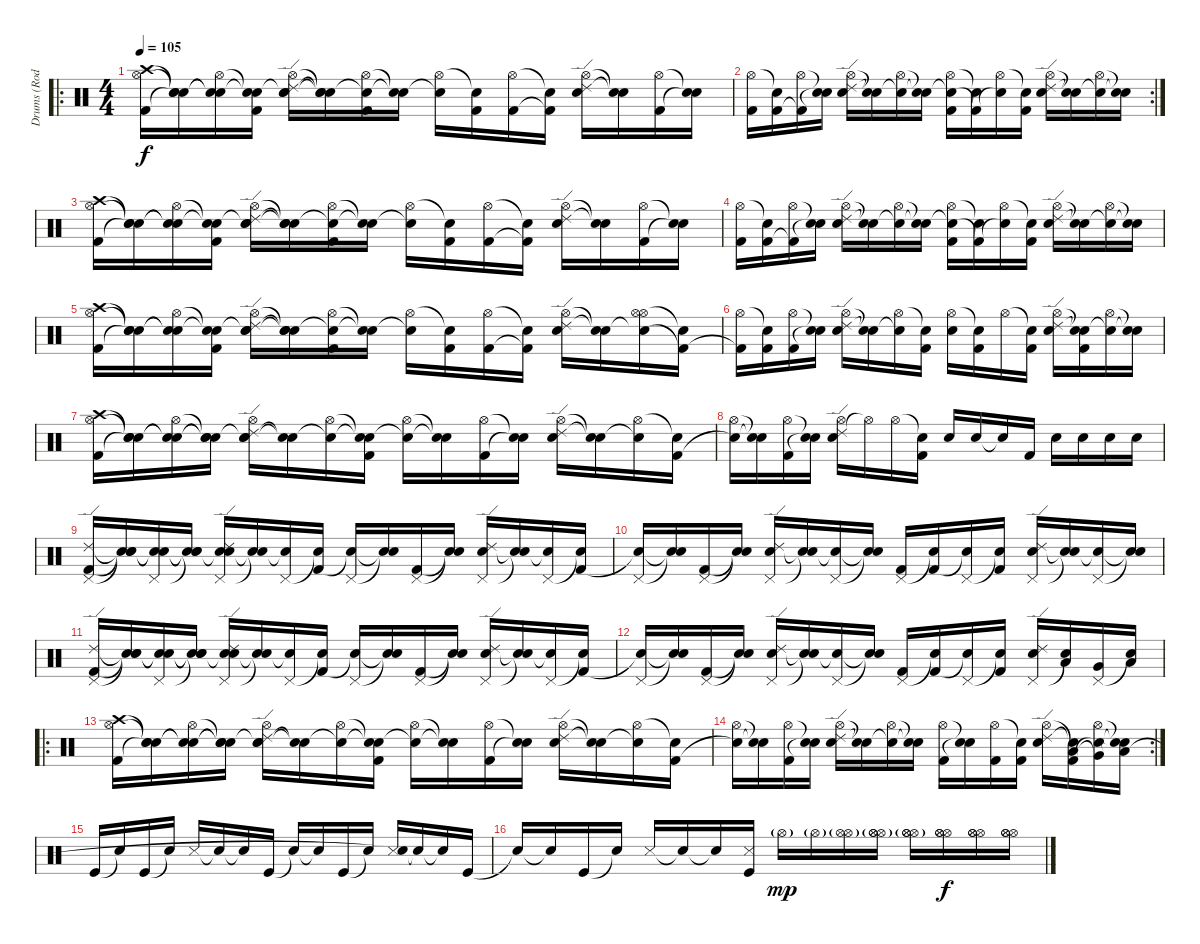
\track ("Drums (Rod Bourdon)" "Drums (Rod") {instrument percussion}
\staff {score}
\articulation defaults
\ro
\ts (4 4)
\tempo 105
\clef neutral
\ks c
("Crash high (hit)" "Hi-Hat (open)" "Kick (hit) 2").16{dy f} ("Snare (hit)"{t} "Snare (hit)"{t} "Snare (hit)"{t}).16 ("Snare (hit)"{t} "Hi-Hat (open)" "Snare (hit)"{t}).16 ("Snare (hit)"{t} "Snare (hit)"{t} "Kick (hit) 2").16 ("Snare (hit)"{t} "Hi-Hat (open)" "Ride (edge) 2" "Electric Snare (hit)").16 ("Snare (hit)"{t} "Snare (hit)"{t} "Snare (hit)"{t}).16 ("Snare (hit)"{t} "Hi-Hat (open)" "Kick (hit) 2").16 ("Snare (hit)"{t} "Snare (hit)"{t}).16 ("Hi-Hat (open)" "Snare (hit)"{t}).16 ("Snare (hit)"{t} "Kick (hit) 2").16 ("Hi-Hat (open)" "Kick (hit) 2").16 ("Snare (hit)"{t} "Kick (hit) 2"{t}).16 ("Hi-Hat (open)" "Ride (edge) 2" "Electric Snare (hit)").16 ("Snare (hit)"{t} "Snare (hit)"{t}).16 ("Hi-Hat (open)" "Kick (hit) 2").16 ("Snare (hit)"{t} "Snare (hit)"{t}).16 |
\rc 2
("Hi-Hat (open)" "Kick (hit) 2").16 ("Snare (hit)"{t} "Kick (hit) 2").16 ("Hi-Hat (open)" "Kick (hit) 2"{t}).16 ("Snare (hit)"{t} "Snare (hit)"{t}).16 ("Hi-Hat (open)" "Ride (edge) 2" "Electric Snare (hit)").16 ("Snare (hit)"{t} "Snare (hit)"{t}).16 ("Hi-Hat (open)" "Snare (hit)"{t}).16 ("Snare (hit)"{t} "Snare (hit)"{t}).16 ("Hi-Hat (open)" "Snare (hit)"{t} "Kick (hit) 2").16 ("Snare (hit)"{t} "Kick (hit) 2"{t}).16 ("Hi-Hat (open)" "Snare (hit)"{t}).16 ("Snare (hit)"{t} "Kick (hit) 2").16 ("Hi-Hat (open)" "Ride (edge) 2" "Electric Snare (hit)").16 ("Snare (hit)"{t} "Snare (hit)"{t}).16 ("Hi-Hat (open)" "Snare (hit)"{t}).16 ("Snare (hit)"{t} "Snare (hit)"{t}).16 |
("Crash high (hit)" "Hi-Hat (open)" "Kick (hit) 2").16 ("Snare (hit)"{t} "Snare (hit)"{t} "Snare (hit)"{t}).16 ("Snare (hit)"{t} "Hi-Hat (open)" "Snare (hit)"{t}).16 ("Snare (hit)"{t} "Snare (hit)"{t} "Kick (hit) 2").16 ("Snare (hit)"{t} "Hi-Hat (open)" "Ride (edge) 2" "Electric Snare (hit)").16 ("Snare (hit)"{t} "Snare (hit)"{t} "Snare (hit)"{t}).16 ("Snare (hit)"{t} "Hi-Hat (open)" "Kick (hit) 2").16 ("Snare (hit)"{t} "Snare (hit)"{t}).16 ("Hi-Hat (open)" "Snare (hit)"{t}).16 ("Snare (hit)"{t} "Kick (hit) 2").16 ("Hi-Hat (open)" "Kick (hit) 2").16 ("Snare (hit)"{t} "Kick (hit) 2"{t}).16 ("Hi-Hat (open)" "Ride (edge) 2" "Electric Snare (hit)").16 ("Snare (hit)"{t} "Snare (hit)"{t}).16 ("Hi-Hat (open)" "Kick (hit) 2").16 ("Snare (hit)"{t} "Snare (hit)"{t}).16 |
("Hi-Hat (open)" "Kick (hit) 2").16 ("Snare (hit)"{t} "Kick (hit) 2").16 ("Hi-Hat (open)" "Kick (hit) 2"{t}).16 ("Snare (hit)"{t} "Snare (hit)"{t}).16 ("Hi-Hat (open)" "Ride (edge) 2" "Electric Snare (hit)").16 ("Snare (hit)"{t} "Snare (hit)"{t}).16 ("Hi-Hat (open)" "Snare (hit)"{t}).16 ("Snare (hit)"{t} "Snare (hit)"{t}).16 ("Hi-Hat (open)" "Snare (hit)"{t} "Kick (hit) 2").16 ("Snare (hit)"{t} "Kick (hit) 2"{t}).16 ("Hi-Hat (open)" "Snare (hit)"{t}).16 ("Snare (hit)"{t} "Kick (hit) 2").16 ("Hi-Hat (open)" "Ride (edge) 2" "Electric Snare (hit)").16 ("Snare (hit)"{t} "Snare (hit)"{t}).16 ("Hi-Hat (open)" "Snare (hit)"{t}).16 ("Snare (hit)"{t} "Snare (hit)"{t}).16 |
("Crash high (hit)" "Hi-Hat (open)" "Kick (hit) 2").16 ("Snare (hit)"{t} "Snare (hit)"{t} "Snare (hit)"{t}).16 ("Snare (hit)"{t} "Hi-Hat (open)" "Snare (hit)"{t}).16 ("Snare (hit)"{t} "Snare (hit)"{t} "Kick (hit) 2").16 ("Snare (hit)"{t} "Hi-Hat (open)" "Ride (edge) 2" "Electric Snare (hit)").16 ("Snare (hit)"{t} "Snare (hit)"{t} "Snare (hit)"{t}).16 ("Snare (hit)"{t} "Hi-Hat (open)" "Kick (hit) 2").16 ("Snare (hit)"{t} "Snare (hit)"{t}).16 ("Hi-Hat (open)" "Snare (hit)"{t}).16 ("Snare (hit)"{t} "Kick (hit) 2").16 ("Hi-Hat (open)" "Kick (hit) 2").16 ("Snare (hit)"{t} "Kick (hit) 2"{t}).16 ("Hi-Hat (open)" "Ride (edge) 2" "Electric Snare (hit)").16 ("Snare (hit)"{t} "Snare (hit)"{t}).16 ("Hi-Hat (open)" "Snare (hit)"{t} "Hi-Hat (open)").16 ("Snare (hit)"{t} "Kick (hit) 2"{t}).16 |
("Hi-Hat (open)" "Kick (hit) 2"{t}).16 ("Snare (hit)"{t} "Kick (hit) 2").16 ("Hi-Hat (open)" "Kick (hit) 2").16 ("Snare (hit)"{t} "Snare (hit)"{t}).16 ("Hi-Hat (open)" "Ride (edge) 2" "Electric Snare (hit)").16 ("Snare (hit)"{t} "Snare (hit)"{t}).16 ("Hi-Hat (open)" "Snare (hit)"{t}).16 ("Snare (hit)"{t} "Kick (hit) 2").16 ("Hi-Hat (open)" "Electric Snare (hit)").16 ("Snare (hit)"{t} "Kick (hit) 2").16 "Hi-Hat (open)".16 ("Snare (hit)"{t} "Kick (hit) 2").16 ("Hi-Hat (open)" "Ride (edge) 2" "Electric Snare (hit)").16 ("Snare (hit)"{t} "Snare (hit)"{t} "Kick (hit) 2").16 ("Hi-Hat (open)" "Snare (hit)"{t}).16 ("Snare (hit)"{t} "Snare (hit)"{t}).16 |
("Crash high (hit)" "Hi-Hat (open)" "Kick (hit) 2").16 ("Snare (hit)"{t} "Snare (hit)"{t} "Snare (hit)"{t}).16 ("Snare (hit)"{t} "Hi-Hat (open)" "Snare (hit)"{t}).16 ("Snare (hit)"{t} "Snare (hit)"{t} "Snare (hit)"{t}).16 ("Snare (hit)"{t} "Ride (edge) 2" "Hi-Hat (open)" "Electric Snare (hit)").16 ("Snare (hit)"{t} "Snare (hit)"{t}).16 ("Hi-Hat (open)" "Snare (hit)"{t}).16 ("Snare (hit)"{t} "Snare (hit)"{t} "Kick (hit) 2").16 ("Hi-Hat (open)" "Snare (hit)"{t}).16 ("Snare (hit)"{t} "Snare (hit)"{t}).16 ("Hi-Hat (open)" "Kick (hit) 2").16 ("Snare (hit)"{t} "Snare (hit)"{t}).16 ("Ride (edge) 2" "Hi-Hat (open)" "Electric Snare (hit)").16 ("Snare (hit)"{t} "Snare (hit)"{t}).16 ("Hi-Hat (open)" "Snare (hit)"{t}).16 ("Snare (hit)"{t} "Kick (hit) 2").16 |
("Hi-Hat (open)" "Snare (hit)"{t}).16 ("Snare (hit)"{t} "Snare (hit)"{t}).16 ("Hi-Hat (open)" "Kick (hit) 2").16 ("Snare (hit)"{t} "Snare (hit)"{t}).16 ("Ride (edge) 2" "Hi-Hat (open)" "Electric Snare (hit)").16 "Hi-Hat (open)"{t}.16 "Hi-Hat (open)".16 ("Snare (hit)"{t} "Kick (hit) 2").16 "Electric Snare (hit)".16 "Electric Snare (hit)".16 "Snare (hit)"{t}.16 "Kick (hit) 2".16 "Electric Snare (hit)".16 "Electric Snare (hit)".16 "Electric Snare (hit)".16 "Electric Snare (hit)".16 |
("Ride (edge) 2" "Pedal Hi-Hat (hit)" "Kick (hit) 2").16 ("Snare (hit)"{t} "Snare (hit)"{t} "Snare (hit)"{t}).16 ("Snare (hit)"{t} "Pedal Hi-Hat (hit)" "Snare (hit)"{t}).16 ("Snare (hit)"{t} "Snare (hit)"{t} "Snare (hit)"{t}).16 ("Snare (hit)"{t} "Pedal Hi-Hat (hit)" "Ride (edge) 2" "Electric Snare (hit)").16 ("Snare (hit)"{t} "Snare (hit)"{t}).16 ("Pedal Hi-Hat (hit)" "Snare (hit)"{t}).16 ("Snare (hit)"{t} "Kick (hit) 2").16 ("Pedal Hi-Hat (hit)" "Snare (hit)"{t}).16 ("Snare (hit)"{t} "Snare (hit)"{t}).16 ("Pedal Hi-Hat (hit)" "Kick (hit) 2").16 ("Snare (hit)"{t} "Snare (hit)"{t}).16 ("Pedal Hi-Hat (hit)" "Ride (edge) 2" "Electric Snare (hit)").16 ("Snare (hit)"{t} "Snare (hit)"{t}).16 ("Pedal Hi-Hat (hit)" "Snare (hit)"{t}).16 ("Snare (hit)"{t} "Kick (hit) 2").16 |
("Pedal Hi-Hat (hit)" "Snare (hit)"{t}).16 ("Snare (hit)"{t} "Snare (hit)"{t}).16 ("Pedal Hi-Hat (hit)" "Kick (hit) 2").16 ("Snare (hit)"{t} "Snare (hit)"{t}).16 ("Pedal Hi-Hat (hit)" "Ride (edge) 2" "Electric Snare (hit)").16 ("Snare (hit)"{t} "Snare (hit)"{t}).16 ("Pedal Hi-Hat (hit)" "Snare (hit)"{t}).16 ("Snare (hit)"{t} "Snare (hit)"{t}).16 ("Pedal Hi-Hat (hit)" "Kick (hit) 2").16 ("Snare (hit)"{t} "Kick (hit) 2").16 ("Pedal Hi-Hat (hit)" "Snare (hit)"{t}).16 ("Snare (hit)"{t} "Kick (hit) 2").16 ("Pedal Hi-Hat (hit)" "Ride (edge) 2" "Electric Snare (hit)").16 ("Snare (hit)"{t} "Snare (hit)"{t}).16 ("Pedal Hi-Hat (hit)" "Snare (hit)"{t}).16 ("Snare (hit)"{t} "Snare (hit)"{t}).16 |
("Ride (edge) 2" "Pedal Hi-Hat (hit)" "Kick (hit) 2").16 ("Snare (hit)"{t} "Snare (hit)"{t} "Snare (hit)"{t}).16 ("Snare (hit)"{t} "Pedal Hi-Hat (hit)" "Snare (hit)"{t}).16 ("Snare (hit)"{t} "Snare (hit)"{t} "Snare (hit)"{t}).16 ("Snare (hit)"{t} "Pedal Hi-Hat (hit)" "Ride (edge) 2" "Electric Snare (hit)").16 ("Snare (hit)"{t} "Snare (hit)"{t}).16 ("Pedal Hi-Hat (hit)" "Snare (hit)"{t}).16 ("Snare (hit)"{t} "Kick (hit) 2").16 ("Pedal Hi-Hat (hit)" "Snare (hit)"{t}).16 ("Snare (hit)"{t} "Snare (hit)"{t}).16 ("Pedal Hi-Hat (hit)" "Kick (hit) 2").16 ("Snare (hit)"{t} "Snare (hit)"{t}).16 ("Pedal Hi-Hat (hit)" "Ride (edge) 2" "Electric Snare (hit)").16 ("Snare (hit)"{t} "Snare (hit)"{t}).16 ("Pedal Hi-Hat (hit)" "Snare (hit)"{t}).16 ("Snare (hit)"{t} "Kick (hit) 2").16 |
("Pedal Hi-Hat (hit)" "Snare (hit)"{t}).16 ("Snare (hit)"{t} "Snare (hit)"{t}).16 ("Pedal Hi-Hat (hit)" "Kick (hit) 2").16 ("Snare (hit)"{t} "Snare (hit)"{t}).16 ("Pedal Hi-Hat (hit)" "Ride (edge) 2" "Electric Snare (hit)").16 ("Snare (hit)"{t} "Snare (hit)"{t}).16 ("Pedal Hi-Hat (hit)" "Snare (hit)"{t}).16 ("Snare (hit)"{t} "Snare (hit)"{t}).16 ("Pedal Hi-Hat (hit)" "Kick (hit) 2").16 ("Snare (hit)"{t} "Kick (hit) 2").16 ("Pedal Hi-Hat (hit)" "Snare (hit)"{t}).16 ("Snare (hit)"{t} "Kick (hit) 2").16 ("Pedal Hi-Hat (hit)" "Ride (edge) 2" "Electric Snare (hit)").16 ("Snare (hit)"{t} "Low Tom (hit)").16 ("Pedal Hi-Hat (hit)" "Very Low Tom (hit)").16 ("Snare (hit)"{t} "Low Floor Tom (hit)").16 |
\ro
("Crash high (hit)" "Hi-Hat (open)" "Kick (hit) 2").16 ("Snare (hit)"{t} "Snare (hit)"{t} "Snare (hit)"{t}).16 ("Snare (hit)"{t} "Hi-Hat (open)" "Snare (hit)"{t}).16 ("Snare (hit)"{t} "Snare (hit)"{t} "Snare (hit)"{t}).16 ("Snare (hit)"{t} "Ride (edge) 2" "Hi-Hat (open)" "Electric Snare (hit)").16 ("Snare (hit)"{t} "Snare (hit)"{t}).16 ("Hi-Hat (open)" "Snare (hit)"{t}).16 ("Snare (hit)"{t} "Snare (hit)"{t} "Kick (hit) 2").16 ("Hi-Hat (open)" "Snare (hit)"{t}).16 ("Snare (hit)"{t} "Snare (hit)"{t}).16 ("Hi-Hat (open)" "Kick (hit) 2").16 ("Snare (hit)"{t} "Snare (hit)"{t}).16 ("Ride (edge) 2" "Hi-Hat (open)" "Electric Snare (hit)").16 ("Snare (hit)"{t} "Snare (hit)"{t}).16 ("Hi-Hat (open)" "Snare (hit)"{t}).16 ("Snare (hit)"{t} "Kick (hit) 2").16 |
\rc 2
("Hi-Hat (open)" "Snare (hit)"{t}).16 ("Snare (hit)"{t} "Snare (hit)"{t}).16 ("Hi-Hat (open)" "Kick (hit) 2").16 ("Snare (hit)"{t} "Snare (hit)"{t}).16 ("Ride (edge) 2" "Hi-Hat (open)" "Electric Snare (hit)").16 ("Snare (hit)"{t} "Snare (hit)"{t}).16 ("Hi-Hat (open)" "Snare (hit)"{t}).16 ("Snare (hit)"{t} "Snare (hit)"{t}).16 ("Hi-Hat (open)" "Kick (hit) 2").16 ("Snare (hit)"{t} "Snare (hit)"{t}).16 ("Hi-Hat (open)" "Kick (hit) 2").16 ("Snare (hit)"{t} "Kick (hit) 2").16 ("Ride (edge) 2" "Hi-Hat (open)" "Electric Snare (hit)").16 ("Snare (hit)"{t} "Low Tom (hit)"{t} "Kick (hit) 2").16 ("Hi-Hat (open)" "Very Low Tom (hit)"{t} "Snare (hit)"{t}).16 ("Snare (hit)"{t} "Low Floor Tom (hit)"{t} "Snare (hit)"{t}).16 |
"Kick (hit)".16 "Snare (hit)"{t}.16 "Kick (hit)".16 "Snare (hit)"{t}.16 "Snare (side stick) 3".16 "Snare (hit)"{t}.16 "Snare (hit)"{t}.16 "Kick (hit)".16 "Snare (hit)"{t}.16 "Snare (hit)"{t}.16 "Kick (hit)".16 "Snare (hit)"{t}.16 ("Snare (side stick) 3" "Snare (hit)"{t}).16 "Snare (hit)"{t}.16 "Snare (hit)"{t}.16 "Kick (hit)".16 |
"Snare (hit)"{t}.16 "Snare (hit)"{t}.16 "Kick (hit)".16 "Snare (hit)"{t}.16 "Snare (side stick) 3".16 "Snare (hit)"{t}.16 "Snare (hit)"{t}.16 ("Snare (side stick) 3" "Kick (hit)").16 "Hi-Hat (open)"{g}.16{dy mp} "Hi-Hat (open)"{g}.16 ("Hi-Hat (open)"{g} "Hi-Hat (open)"{g}).16 ("Hi-Hat (open)"{g} "Hi-Hat (open)"{g} "Hi-Hat (open)"{g}).16 ("Hi-Hat (open)" "Hi-Hat (open)" "Hi-Hat (open)"{g}).16 ("Hi-Hat (open)" "Hi-Hat (open)" "Hi-Hat (open)").16{dy f} ("Hi-Hat (open)" "Hi-Hat (open)" "Hi-Hat (open)").16 ("Hi-Hat (open)" "Hi-Hat (open)" "Hi-Hat (open)").16
